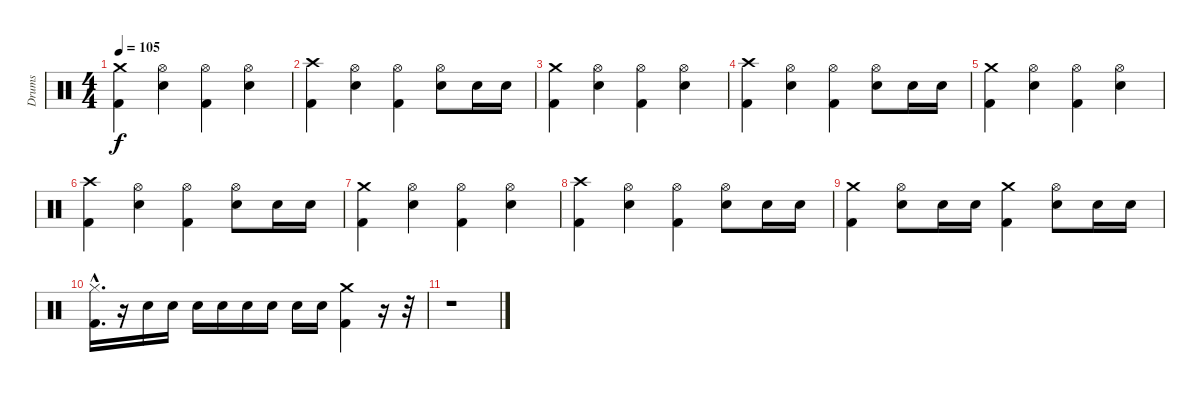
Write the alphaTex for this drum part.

\track ("Drums" "Drums") {instrument percussion}
\staff {score}
\articulation defaults
\ts (4 4)
\tempo 105
\clef neutral
\ks c
("Crash medium (hit)" "Kick (hit) 2").4{dy f} ("Hi-Hat (open)" "Electric Snare (hit)").4 ("Hi-Hat (open)" "Kick (hit) 2").4 ("Hi-Hat (open)" "Electric Snare (hit)").4 |
("Crash high (hit)" "Kick (hit) 2").4 ("Hi-Hat (open)" "Electric Snare (hit)").4 ("Hi-Hat (open)" "Kick (hit) 2").4 ("Hi-Hat (open)" "Electric Snare (hit)").8 "Electric Snare (hit)".16 "Electric Snare (hit)".16 |
("Crash medium (hit)" "Kick (hit) 2").4 ("Hi-Hat (open)" "Electric Snare (hit)").4 ("Hi-Hat (open)" "Kick (hit) 2").4 ("Hi-Hat (open)" "Electric Snare (hit)").4 |
("Crash high (hit)" "Kick (hit) 2").4 ("Hi-Hat (open)" "Electric Snare (hit)").4 ("Hi-Hat (open)" "Kick (hit) 2").4 ("Hi-Hat (open)" "Electric Snare (hit)").8 "Electric Snare (hit)".16 "Electric Snare (hit)".16 |
("Crash medium (hit)" "Kick (hit) 2").4 ("Hi-Hat (open)" "Electric Snare (hit)").4 ("Hi-Hat (open)" "Kick (hit) 2").4 ("Hi-Hat (open)" "Electric Snare (hit)").4 |
("Crash high (hit)" "Kick (hit) 2").4 ("Hi-Hat (open)" "Electric Snare (hit)").4 ("Hi-Hat (open)" "Kick (hit) 2").4 ("Hi-Hat (open)" "Electric Snare (hit)").8 "Electric Snare (hit)".16 "Electric Snare (hit)".16 |
("Crash medium (hit)" "Kick (hit) 2").4 ("Hi-Hat (open)" "Electric Snare (hit)").4 ("Hi-Hat (open)" "Kick (hit) 2").4 ("Hi-Hat (open)" "Electric Snare (hit)").4 |
("Crash high (hit)" "Kick (hit) 2").4 ("Hi-Hat (open)" "Electric Snare (hit)").4 ("Hi-Hat (open)" "Kick (hit) 2").4 ("Hi-Hat (open)" "Electric Snare (hit)").8 "Electric Snare (hit)".16 "Electric Snare (hit)".16 |
("Crash medium (hit)" "Kick (hit) 2").4 ("Hi-Hat (open)" "Electric Snare (hit)").8 "Electric Snare (hit)".16 "Electric Snare (hit)".16 ("Crash medium (hit)" "Kick (hit) 2").4 ("Hi-Hat (open)" "Electric Snare (hit)").8 "Electric Snare (hit)".16 "Electric Snare (hit)".16 |
("Hi-Hat (closed)"{hac} "Kick (hit) 2"{hac}).16{d} r.16 "Electric Snare (hit)".16 "Electric Snare (hit)".16 "Electric Snare (hit)".16 "Electric Snare (hit)".16 "Electric Snare (hit)".16 "Electric Snare (hit)".16 "Electric Snare (hit)".16 "Electric Snare (hit)".16 ("Crash medium (hit)" "Kick (hit) 2").4 r.16 r.32 |
r.1
